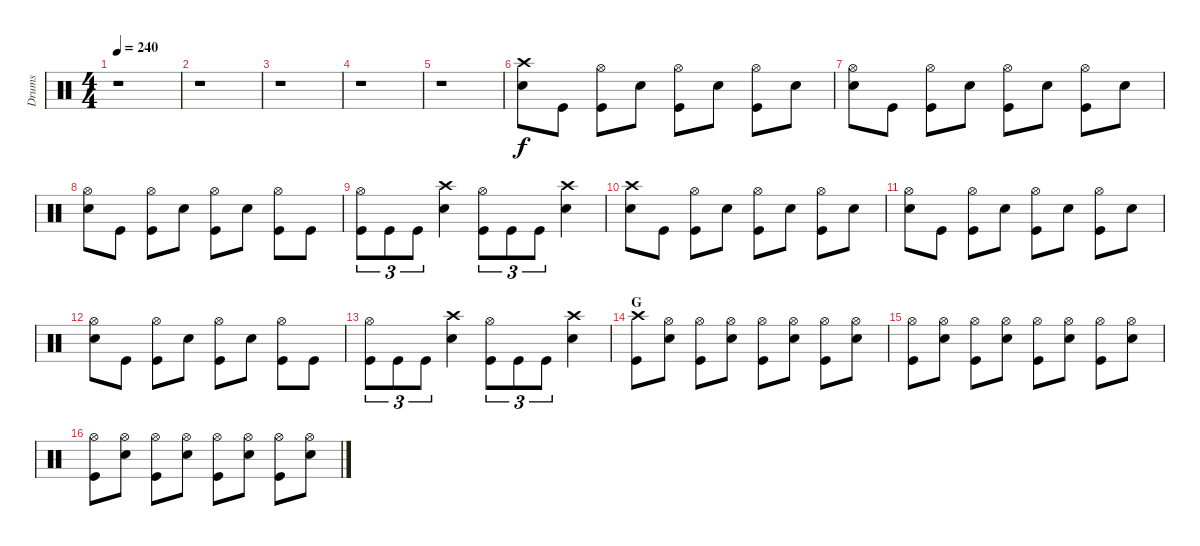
\track ("Drums" "Drums") {instrument percussion}
\staff {score}
\articulation defaults
\ts (4 4)
\tempo 240
\clef neutral
\ks c
r.1{dy f} |
r.1 |
r.1 |
r.1 |
r.1 |
("Crash high (hit)" "Snare (hit) 2").8 "Kick (hit)".8 ("Hi-Hat (open)" "Kick (hit)").8 "Snare (hit) 2".8 ("Hi-Hat (open)" "Kick (hit)").8 "Snare (hit) 2".8 ("Hi-Hat (open)" "Kick (hit)").8 "Snare (hit) 2".8 |
("Hi-Hat (open)" "Snare (hit) 2").8 "Kick (hit)".8 ("Hi-Hat (open)" "Kick (hit)").8 "Snare (hit) 2".8 ("Hi-Hat (open)" "Kick (hit)").8 "Snare (hit) 2".8 ("Hi-Hat (open)" "Kick (hit)").8 "Snare (hit) 2".8 |
("Hi-Hat (open)" "Snare (hit) 2").8 "Kick (hit)".8 ("Hi-Hat (open)" "Kick (hit)").8 "Snare (hit) 2".8 ("Hi-Hat (open)" "Kick (hit)").8 "Snare (hit) 2".8 ("Hi-Hat (open)" "Kick (hit)").8 "Kick (hit)".8 |
("Hi-Hat (open)" "Kick (hit)").8{tu (3 2)} "Kick (hit)".8{tu (3 2)} "Kick (hit)".8{tu (3 2)} ("Crash high (hit)" "Snare (hit) 2").4 ("Hi-Hat (open)" "Kick (hit)").8{tu (3 2)} "Kick (hit)".8{tu (3 2)} "Kick (hit)".8{tu (3 2)} ("Crash high (hit)" "Snare (hit) 2").4 |
("Crash high (hit)" "Snare (hit) 2").8 "Kick (hit)".8 ("Hi-Hat (open)" "Kick (hit)").8 "Snare (hit) 2".8 ("Hi-Hat (open)" "Kick (hit)").8 "Snare (hit) 2".8 ("Hi-Hat (open)" "Kick (hit)").8 "Snare (hit) 2".8 |
("Hi-Hat (open)" "Snare (hit) 2").8 "Kick (hit)".8 ("Hi-Hat (open)" "Kick (hit)").8 "Snare (hit) 2".8 ("Hi-Hat (open)" "Kick (hit)").8 "Snare (hit) 2".8 ("Hi-Hat (open)" "Kick (hit)").8 "Snare (hit) 2".8 |
("Hi-Hat (open)" "Snare (hit) 2").8 "Kick (hit)".8 ("Hi-Hat (open)" "Kick (hit)").8 "Snare (hit) 2".8 ("Hi-Hat (open)" "Kick (hit)").8 "Snare (hit) 2".8 ("Hi-Hat (open)" "Kick (hit)").8 "Kick (hit)".8 |
("Hi-Hat (open)" "Kick (hit)").8{tu (3 2)} "Kick (hit)".8{tu (3 2)} "Kick (hit)".8{tu (3 2)} ("Crash high (hit)" "Snare (hit) 2").4 ("Hi-Hat (open)" "Kick (hit)").8{tu (3 2)} "Kick (hit)".8{tu (3 2)} "Kick (hit)".8{tu (3 2)} ("Crash high (hit)" "Snare (hit) 2").4 |
\section ("" "G")
("Crash high (hit)" "Kick (hit)").8 ("Hi-Hat (open)" "Snare (hit) 2").8 ("Hi-Hat (open)" "Kick (hit)").8 ("Hi-Hat (open)" "Snare (hit) 2").8 ("Hi-Hat (open)" "Kick (hit)").8 ("Hi-Hat (open)" "Snare (hit) 2").8 ("Hi-Hat (open)" "Kick (hit)").8 ("Hi-Hat (open)" "Snare (hit) 2").8 |
("Hi-Hat (open)" "Kick (hit)").8 ("Hi-Hat (open)" "Snare (hit) 2").8 ("Hi-Hat (open)" "Kick (hit)").8 ("Hi-Hat (open)" "Snare (hit) 2").8 ("Hi-Hat (open)" "Kick (hit)").8 ("Hi-Hat (open)" "Snare (hit) 2").8 ("Hi-Hat (open)" "Kick (hit)").8 ("Hi-Hat (open)" "Snare (hit) 2").8 |
("Hi-Hat (open)" "Kick (hit)").8 ("Hi-Hat (open)" "Snare (hit) 2").8 ("Hi-Hat (open)" "Kick (hit)").8 ("Hi-Hat (open)" "Snare (hit) 2").8 ("Hi-Hat (open)" "Kick (hit)").8 ("Hi-Hat (open)" "Snare (hit) 2").8 ("Hi-Hat (open)" "Kick (hit)").8 ("Hi-Hat (open)" "Snare (hit) 2").8
